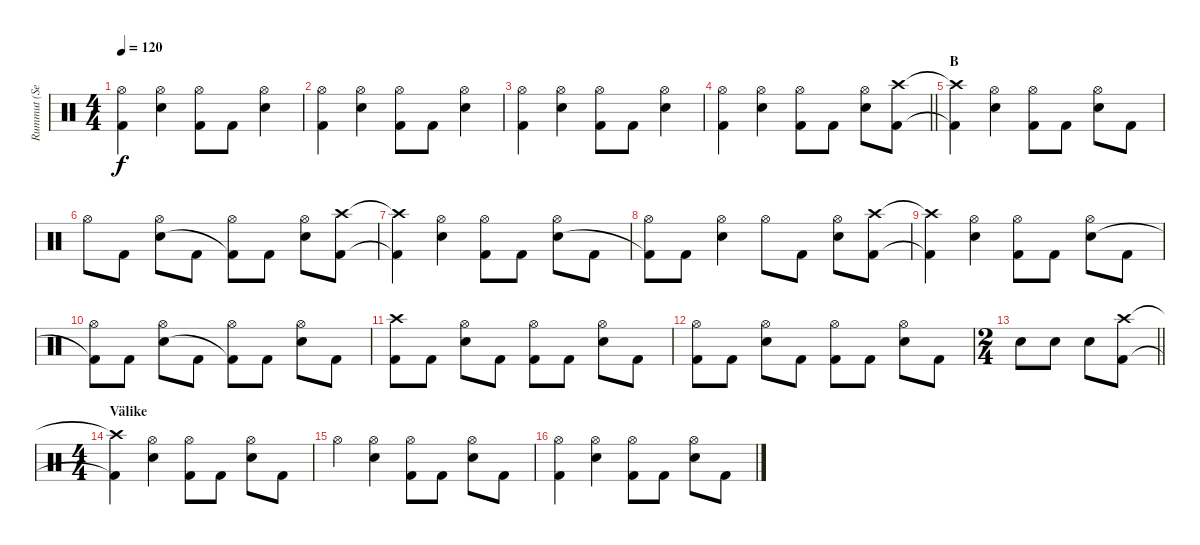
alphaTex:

\track ("Rummut (Seppo Pohjolainen)" "Rummut (Se") {instrument percussion}
\staff {score}
\articulation defaults
\ts (4 4)
\tempo 120
\clef neutral
\ks c
("Hi-Hat (open)" "Kick (hit) 2").4{dy f} ("Hi-Hat (open)" "Electric Snare (hit)").4 ("Hi-Hat (open)" "Kick (hit) 2").8 "Kick (hit) 2".8 ("Hi-Hat (open)" "Electric Snare (hit)").4 |
("Hi-Hat (open)" "Kick (hit) 2").4 ("Hi-Hat (open)" "Electric Snare (hit)").4 ("Hi-Hat (open)" "Kick (hit) 2").8 "Kick (hit) 2".8 ("Hi-Hat (open)" "Electric Snare (hit)").4 |
("Hi-Hat (open)" "Kick (hit) 2").4 ("Hi-Hat (open)" "Electric Snare (hit)").4 ("Hi-Hat (open)" "Kick (hit) 2").8 "Kick (hit) 2".8 ("Hi-Hat (open)" "Electric Snare (hit)").4 |
\barLineRight lightlight
("Hi-Hat (open)" "Kick (hit) 2").4 ("Hi-Hat (open)" "Electric Snare (hit)").4 ("Hi-Hat (open)" "Kick (hit) 2").8 "Kick (hit) 2".8 ("Hi-Hat (open)" "Electric Snare (hit)").8 ("Crash high (hit)" "Kick (hit) 2").8 |
\section ("" "B")
("Crash high (hit)"{t} "Kick (hit) 2"{t}).4 ("Hi-Hat (open)" "Electric Snare (hit)").4 ("Hi-Hat (open)" "Kick (hit) 2").8 "Kick (hit) 2".8 ("Hi-Hat (open)" "Electric Snare (hit)").8 "Kick (hit) 2".8 |
"Hi-Hat (open)".8 "Kick (hit) 2".8 ("Hi-Hat (open)" "Electric Snare (hit)").8 "Kick (hit) 2".8 ("Hi-Hat (open)" "Kick (hit) 2"{t}).8 "Kick (hit) 2".8 ("Hi-Hat (open)" "Electric Snare (hit)").8 ("Crash high (hit)" "Kick (hit) 2").8 |
("Crash high (hit)"{t} "Kick (hit) 2"{t}).4 ("Hi-Hat (open)" "Electric Snare (hit)").4 ("Hi-Hat (open)" "Kick (hit) 2").8 "Kick (hit) 2".8 ("Hi-Hat (open)" "Electric Snare (hit)").8 "Kick (hit) 2".8 |
("Hi-Hat (open)" "Kick (hit) 2"{t}).8 "Kick (hit) 2".8 ("Hi-Hat (open)" "Electric Snare (hit)").4 "Hi-Hat (open)".8 "Kick (hit) 2".8 ("Hi-Hat (open)" "Electric Snare (hit)").8 ("Crash high (hit)" "Kick (hit) 2").8 |
("Crash high (hit)"{t} "Kick (hit) 2"{t}).4 ("Hi-Hat (open)" "Electric Snare (hit)").4 ("Hi-Hat (open)" "Kick (hit) 2").8 "Kick (hit) 2".8 ("Hi-Hat (open)" "Electric Snare (hit)").8 "Kick (hit) 2".8 |
("Hi-Hat (open)" "Kick (hit) 2"{t}).8 "Kick (hit) 2".8 ("Hi-Hat (open)" "Electric Snare (hit)").8 "Kick (hit) 2".8 ("Hi-Hat (open)" "Kick (hit) 2"{t}).8 "Kick (hit) 2".8 ("Hi-Hat (open)" "Electric Snare (hit)").8 "Kick (hit) 2".8 |
("Crash high (hit)" "Kick (hit) 2").8 "Kick (hit) 2".8 ("Hi-Hat (open)" "Electric Snare (hit)").8 "Kick (hit) 2".8 ("Hi-Hat (open)" "Kick (hit) 2").8 "Kick (hit) 2".8 ("Hi-Hat (open)" "Electric Snare (hit)").8 "Kick (hit) 2".8 |
("Hi-Hat (open)" "Kick (hit) 2").8 "Kick (hit) 2".8 ("Hi-Hat (open)" "Electric Snare (hit)").8 "Kick (hit) 2".8 ("Hi-Hat (open)" "Kick (hit) 2").8 "Kick (hit) 2".8 ("Hi-Hat (open)" "Electric Snare (hit)").8 "Kick (hit) 2".8 |
\ts (2 4)
\barLineRight lightlight "Electric Snare (hit)".8 "Electric Snare (hit)".8 "Electric Snare (hit)".8
("Crash high (hit)" "Kick (hit) 2").8 |
\ts (4 4)
\section ("" "Välike")
("Crash high (hit)"{t} "Kick (hit) 2"{t}).4 ("Hi-Hat (open)" "Electric Snare (hit)").4 ("Hi-Hat (open)" "Kick (hit) 2").8 "Kick (hit) 2".8 ("Hi-Hat (open)" "Electric Snare (hit)").8 "Kick (hit) 2".8 |
"Hi-Hat (open)".4 ("Hi-Hat (open)" "Electric Snare (hit)").4 ("Hi-Hat (open)" "Kick (hit) 2").8 "Kick (hit) 2".8 ("Hi-Hat (open)" "Electric Snare (hit)").8 "Kick (hit) 2".8 |
("Hi-Hat (open)" "Kick (hit) 2").4 ("Hi-Hat (open)" "Electric Snare (hit)").4 ("Hi-Hat (open)" "Kick (hit) 2").8 "Kick (hit) 2".8 ("Hi-Hat (open)" "Electric Snare (hit)").8 "Kick (hit) 2".8
